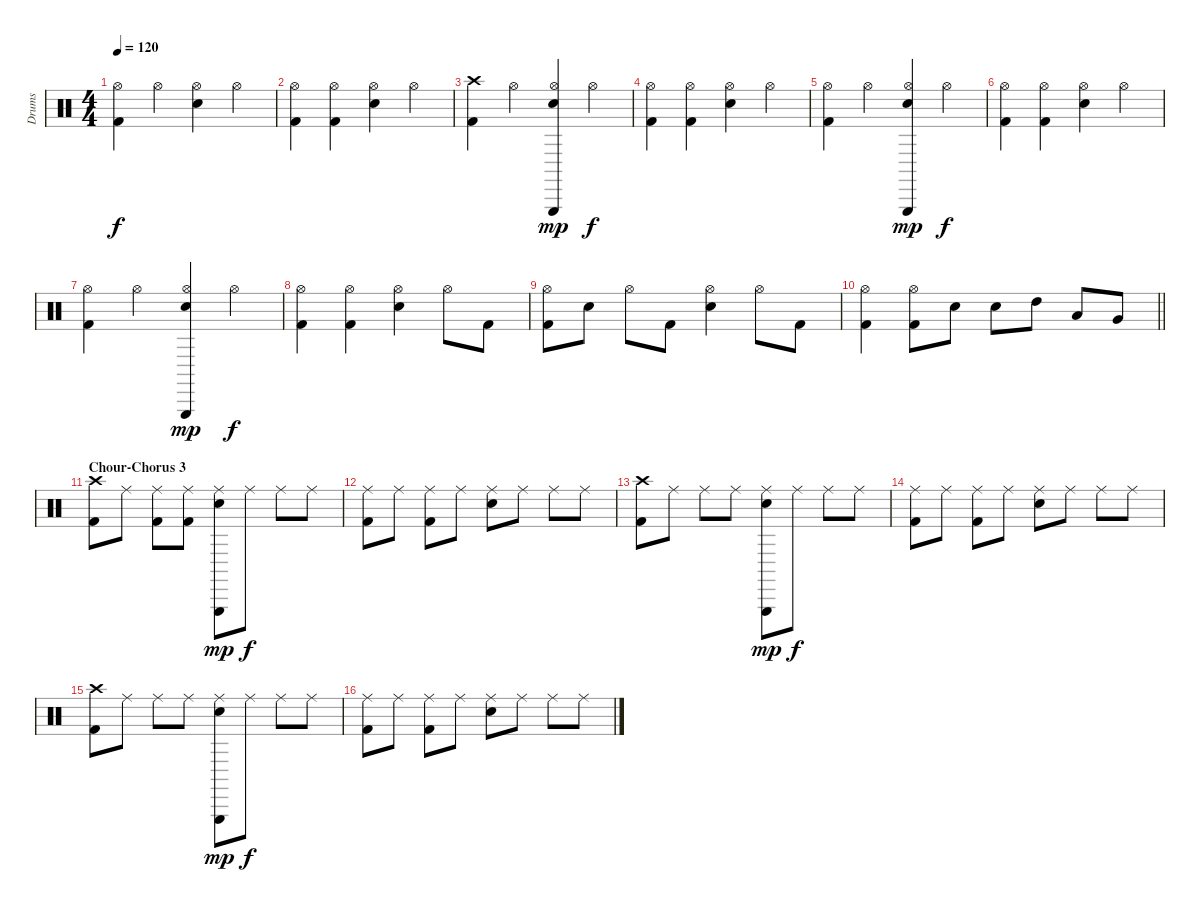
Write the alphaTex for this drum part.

\track ("Drums" "Drums") {instrument percussion}
\staff {score}
\articulation defaults
\ts (4 4)
\tempo 120
\clef neutral
\ks c
("Hi-Hat (open)" "Kick (hit) 2").4{dy f} "Hi-Hat (open)".4 ("Hi-Hat (open)" "Snare (hit) 2").4 "Hi-Hat (open)".4 |
("Hi-Hat (open)" "Kick (hit) 2").4 ("Hi-Hat (open)" "Kick (hit) 2").4 ("Hi-Hat (open)" "Snare (hit) 2").4 "Hi-Hat (open)".4 |
("Crash high (hit)" "Kick (hit) 2").4 "Hi-Hat (open)".4 ("Hi-Hat (open)" "Snare (hit) 2" "Triangle (hit)").4{dy mp} "Hi-Hat (open)".4{dy f} |
("Hi-Hat (open)" "Kick (hit) 2").4 ("Hi-Hat (open)" "Kick (hit) 2").4 ("Hi-Hat (open)" "Snare (hit) 2").4 "Hi-Hat (open)".4 |
("Hi-Hat (open)" "Kick (hit) 2").4 "Hi-Hat (open)".4 ("Hi-Hat (open)" "Snare (hit) 2" "Triangle (hit)").4{dy mp} "Hi-Hat (open)".4{dy f} |
("Hi-Hat (open)" "Kick (hit) 2").4 ("Hi-Hat (open)" "Kick (hit) 2").4 ("Hi-Hat (open)" "Snare (hit) 2").4 "Hi-Hat (open)".4 |
("Hi-Hat (open)" "Kick (hit) 2").4 "Hi-Hat (open)".4 ("Hi-Hat (open)" "Snare (hit) 2" "Triangle (hit)").4{dy mp} "Hi-Hat (open)".4{dy f} |
("Hi-Hat (open)" "Kick (hit) 2").4 ("Hi-Hat (open)" "Kick (hit) 2").4 ("Hi-Hat (open)" "Snare (hit) 2").4 "Hi-Hat (open)".8 "Kick (hit) 2".8 |
("Hi-Hat (open)" "Kick (hit) 2").8 "Snare (hit) 2".8 "Hi-Hat (open)".8 "Kick (hit) 2".8 ("Hi-Hat (open)" "Snare (hit) 2").4 "Hi-Hat (open)".8 "Kick (hit) 2".8 |
\barLineRight lightlight
("Hi-Hat (open)" "Kick (hit) 2").4 ("Hi-Hat (open)" "Kick (hit) 2").8 "Snare (hit) 2".8 "Snare (hit) 2".8 "High Tom (hit)".8 "Low Tom (hit)".8 "Very Low Tom (hit)".8 |
\section ("" "Chour-Chorus 3")
("Crash high (hit)" "Kick (hit) 2").8 "Ride (middle)".8 ("Ride (middle)" "Kick (hit) 2").8 ("Ride (middle)" "Kick (hit) 2").8 ("Ride (middle)" "Snare (hit) 2" "Triangle (hit)").8{dy mp} "Ride (middle)".8{dy f} "Ride (middle)".8 "Ride (middle)".8 |
("Ride (middle)" "Kick (hit) 2").8 "Ride (middle)".8 ("Ride (middle)" "Kick (hit) 2").8 "Ride (middle)".8 ("Ride (middle)" "Snare (hit) 2").8 "Ride (middle)".8 "Ride (middle)".8 "Ride (middle)".8 |
("Crash high (hit)" "Kick (hit) 2").8 "Ride (middle)".8 "Ride (middle)".8 "Ride (middle)".8 ("Ride (middle)" "Snare (hit) 2" "Triangle (hit)").8{dy mp} "Ride (middle)".8{dy f} "Ride (middle)".8 "Ride (middle)".8 |
("Ride (middle)" "Kick (hit) 2").8 "Ride (middle)".8 ("Ride (middle)" "Kick (hit) 2").8 "Ride (middle)".8 ("Ride (middle)" "Snare (hit) 2").8 "Ride (middle)".8 "Ride (middle)".8 "Ride (middle)".8 |
("Crash high (hit)" "Kick (hit) 2").8 "Ride (middle)".8 "Ride (middle)".8 "Ride (middle)".8 ("Ride (middle)" "Snare (hit) 2" "Triangle (hit)").8{dy mp} "Ride (middle)".8{dy f} "Ride (middle)".8 "Ride (middle)".8 |
("Ride (middle)" "Kick (hit) 2").8 "Ride (middle)".8 ("Ride (middle)" "Kick (hit) 2").8 "Ride (middle)".8 ("Ride (middle)" "Snare (hit) 2").8 "Ride (middle)".8 "Ride (middle)".8 "Ride (middle)".8
